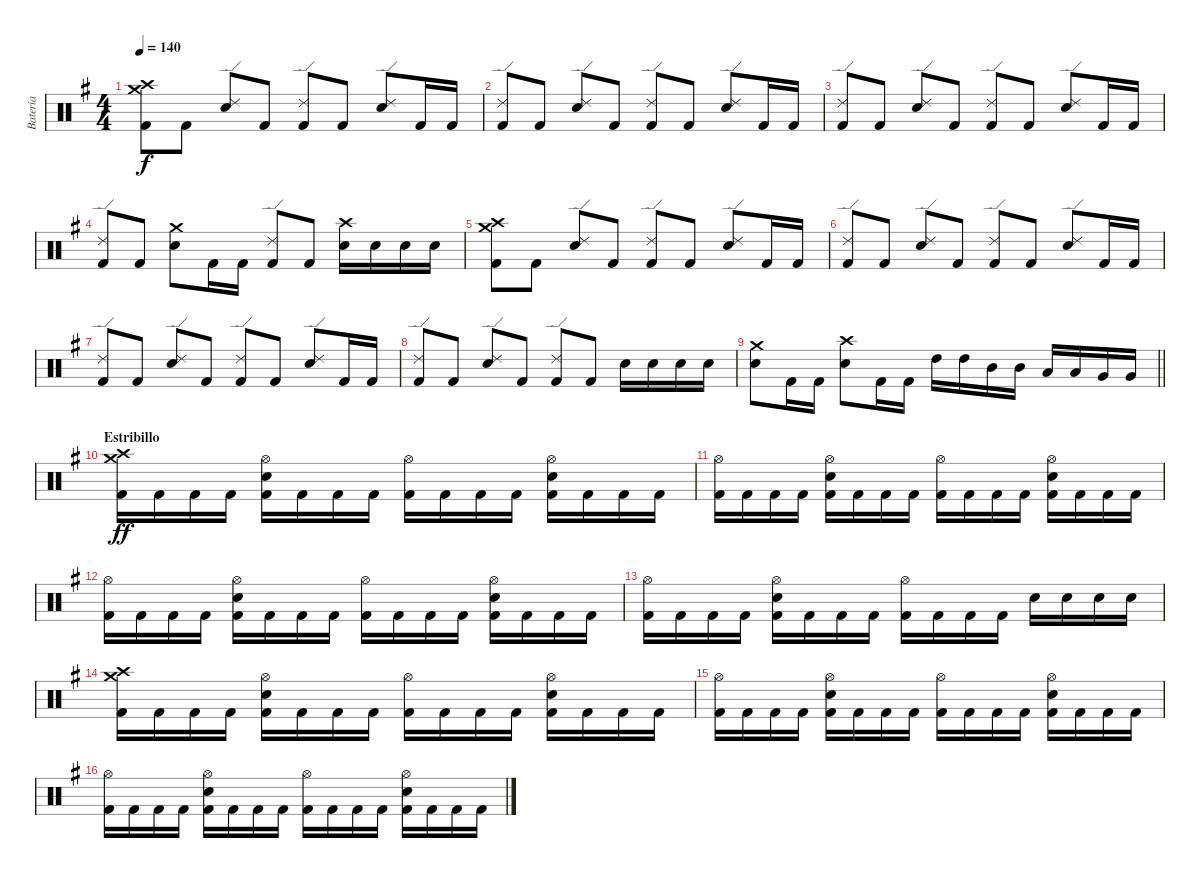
\track ("Batería" "Batería") {instrument percussion}
\staff {score}
\articulation defaults
\ts (4 4)
\section ("" "")
\tempo 140
\clef neutral
\ks g
("Crash medium (hit)" "Crash high (hit)" "Kick (hit) 2").8{dy f} "Kick (hit) 2".8 ("Ride (edge) 2" "Snare (hit) 2").8 "Kick (hit) 2".8 ("Ride (edge) 2" "Kick (hit) 2").8 "Kick (hit) 2".8 ("Ride (edge) 2" "Snare (hit) 2").8 "Kick (hit) 2".16 "Kick (hit) 2".16 |
("Ride (edge) 2" "Kick (hit) 2").8 "Kick (hit) 2".8 ("Ride (edge) 2" "Snare (hit) 2").8 "Kick (hit) 2".8 ("Ride (edge) 2" "Kick (hit) 2").8 "Kick (hit) 2".8 ("Ride (edge) 2" "Snare (hit) 2").8 "Kick (hit) 2".16 "Kick (hit) 2".16 |
("Ride (edge) 2" "Kick (hit) 2").8 "Kick (hit) 2".8 ("Ride (edge) 2" "Snare (hit) 2").8 "Kick (hit) 2".8 ("Ride (edge) 2" "Kick (hit) 2").8 "Kick (hit) 2".8 ("Ride (edge) 2" "Snare (hit) 2").8 "Kick (hit) 2".16 "Kick (hit) 2".16 |
("Ride (edge) 2" "Kick (hit) 2").8 "Kick (hit) 2".8 ("Crash medium (hit)" "Snare (hit) 2").8 "Kick (hit) 2".16 "Kick (hit) 2".16 ("Ride (edge) 2" "Kick (hit) 2").8 "Kick (hit) 2".8 ("Crash high (hit)" "Snare (hit) 2").16 "Snare (hit) 2".16 "Snare (hit) 2".16 "Snare (hit) 2".16 |
("Crash medium (hit)" "Crash high (hit)" "Kick (hit) 2").8 "Kick (hit) 2".8 ("Ride (edge) 2" "Snare (hit) 2").8 "Kick (hit) 2".8 ("Ride (edge) 2" "Kick (hit) 2").8 "Kick (hit) 2".8 ("Ride (edge) 2" "Snare (hit) 2").8 "Kick (hit) 2".16 "Kick (hit) 2".16 |
("Ride (edge) 2" "Kick (hit) 2").8 "Kick (hit) 2".8 ("Ride (edge) 2" "Snare (hit) 2").8 "Kick (hit) 2".8 ("Ride (edge) 2" "Kick (hit) 2").8 "Kick (hit) 2".8 ("Ride (edge) 2" "Snare (hit) 2").8 "Kick (hit) 2".16 "Kick (hit) 2".16 |
("Ride (edge) 2" "Kick (hit) 2").8 "Kick (hit) 2".8 ("Ride (edge) 2" "Snare (hit) 2").8 "Kick (hit) 2".8 ("Ride (edge) 2" "Kick (hit) 2").8 "Kick (hit) 2".8 ("Ride (edge) 2" "Snare (hit) 2").8 "Kick (hit) 2".16 "Kick (hit) 2".16 |
("Ride (edge) 2" "Kick (hit) 2").8 "Kick (hit) 2".8 ("Ride (edge) 2" "Snare (hit) 2").8 "Kick (hit) 2".8 ("Ride (edge) 2" "Kick (hit) 2").8 "Kick (hit) 2".8 "Snare (hit) 2".16 "Snare (hit) 2".16 "Snare (hit) 2".16 "Snare (hit) 2".16 |
\barLineRight lightlight
("Crash medium (hit)" "Snare (hit) 2").8 "Kick (hit) 2".16 "Kick (hit) 2".16 ("Crash high (hit)" "Snare (hit) 2").8 "Kick (hit) 2".16 "Kick (hit) 2".16 "High Tom (hit)".16 "High Tom (hit)".16 "Mid Tom (hit)".16 "Mid Tom (hit)".16 "Low Tom (hit)".16 "Low Tom (hit)".16 "Very Low Tom (hit)".16 "Very Low Tom (hit)".16 |
\section ("" "Estribillo")
("Crash medium (hit)" "Crash high (hit)" "Kick (hit) 2").16{dy ff} "Kick (hit) 2".16 "Kick (hit) 2".16 "Kick (hit) 2".16 ("Hi-Hat (open)" "Snare (hit) 2" "Kick (hit) 2").16 "Kick (hit) 2".16 "Kick (hit) 2".16 "Kick (hit) 2".16 ("Hi-Hat (open)" "Kick (hit) 2").16 "Kick (hit) 2".16 "Kick (hit) 2".16 "Kick (hit) 2".16 ("Hi-Hat (open)" "Snare (hit) 2" "Kick (hit) 2").16 "Kick (hit) 2".16 "Kick (hit) 2".16 "Kick (hit) 2".16 |
("Hi-Hat (open)" "Kick (hit) 2").16 "Kick (hit) 2".16 "Kick (hit) 2".16 "Kick (hit) 2".16 ("Hi-Hat (open)" "Snare (hit) 2" "Kick (hit) 2").16 "Kick (hit) 2".16 "Kick (hit) 2".16 "Kick (hit) 2".16 ("Hi-Hat (open)" "Kick (hit) 2").16 "Kick (hit) 2".16 "Kick (hit) 2".16 "Kick (hit) 2".16 ("Hi-Hat (open)" "Snare (hit) 2" "Kick (hit) 2").16 "Kick (hit) 2".16 "Kick (hit) 2".16 "Kick (hit) 2".16 |
("Hi-Hat (open)" "Kick (hit) 2").16 "Kick (hit) 2".16 "Kick (hit) 2".16 "Kick (hit) 2".16 ("Hi-Hat (open)" "Snare (hit) 2" "Kick (hit) 2").16 "Kick (hit) 2".16 "Kick (hit) 2".16 "Kick (hit) 2".16 ("Hi-Hat (open)" "Kick (hit) 2").16 "Kick (hit) 2".16 "Kick (hit) 2".16 "Kick (hit) 2".16 ("Hi-Hat (open)" "Snare (hit) 2" "Kick (hit) 2").16 "Kick (hit) 2".16 "Kick (hit) 2".16 "Kick (hit) 2".16 |
("Hi-Hat (open)" "Kick (hit) 2").16 "Kick (hit) 2".16 "Kick (hit) 2".16 "Kick (hit) 2".16 ("Hi-Hat (open)" "Snare (hit) 2" "Kick (hit) 2").16 "Kick (hit) 2".16 "Kick (hit) 2".16 "Kick (hit) 2".16 ("Hi-Hat (open)" "Kick (hit) 2").16 "Kick (hit) 2".16 "Kick (hit) 2".16 "Kick (hit) 2".16 "Snare (hit) 2".16 "Snare (hit) 2".16 "Snare (hit) 2".16 "Snare (hit) 2".16 |
("Crash medium (hit)" "Crash high (hit)" "Kick (hit) 2").16 "Kick (hit) 2".16 "Kick (hit) 2".16 "Kick (hit) 2".16 ("Hi-Hat (open)" "Snare (hit) 2" "Kick (hit) 2").16 "Kick (hit) 2".16 "Kick (hit) 2".16 "Kick (hit) 2".16 ("Hi-Hat (open)" "Kick (hit) 2").16 "Kick (hit) 2".16 "Kick (hit) 2".16 "Kick (hit) 2".16 ("Hi-Hat (open)" "Snare (hit) 2" "Kick (hit) 2").16 "Kick (hit) 2".16 "Kick (hit) 2".16 "Kick (hit) 2".16 |
("Hi-Hat (open)" "Kick (hit) 2").16 "Kick (hit) 2".16 "Kick (hit) 2".16 "Kick (hit) 2".16 ("Hi-Hat (open)" "Snare (hit) 2" "Kick (hit) 2").16 "Kick (hit) 2".16 "Kick (hit) 2".16 "Kick (hit) 2".16 ("Hi-Hat (open)" "Kick (hit) 2").16 "Kick (hit) 2".16 "Kick (hit) 2".16 "Kick (hit) 2".16 ("Hi-Hat (open)" "Snare (hit) 2" "Kick (hit) 2").16 "Kick (hit) 2".16 "Kick (hit) 2".16 "Kick (hit) 2".16 |
("Hi-Hat (open)" "Kick (hit) 2").16 "Kick (hit) 2".16 "Kick (hit) 2".16 "Kick (hit) 2".16 ("Hi-Hat (open)" "Snare (hit) 2" "Kick (hit) 2").16 "Kick (hit) 2".16 "Kick (hit) 2".16 "Kick (hit) 2".16 ("Hi-Hat (open)" "Kick (hit) 2").16 "Kick (hit) 2".16 "Kick (hit) 2".16 "Kick (hit) 2".16 ("Hi-Hat (open)" "Snare (hit) 2" "Kick (hit) 2").16 "Kick (hit) 2".16 "Kick (hit) 2".16 "Kick (hit) 2".16
